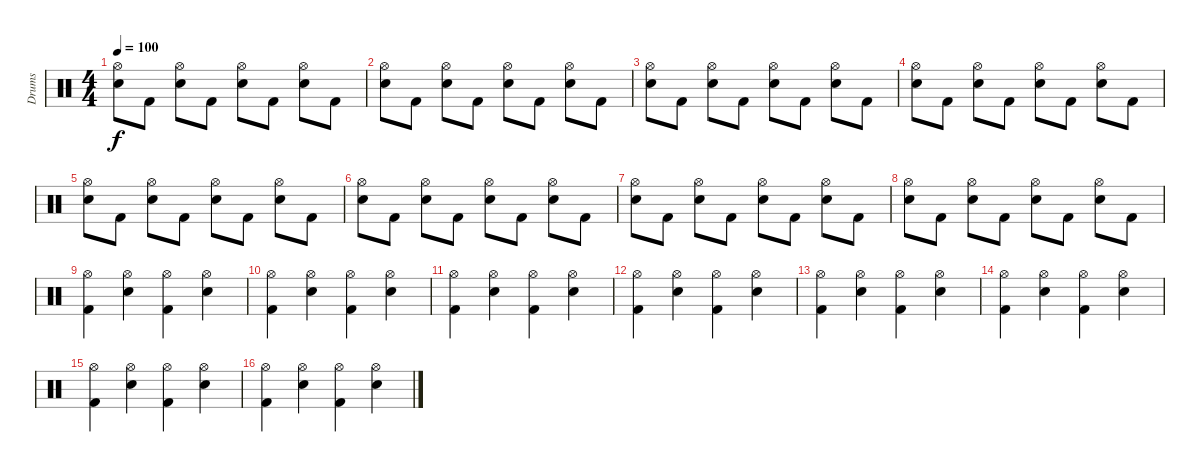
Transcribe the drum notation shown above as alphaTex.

\track ("Drums" "Drums") {instrument percussion}
\staff {score}
\articulation defaults
\ts (4 4)
\tempo 100
\clef neutral
\ks c
("Hi-Hat (open)" "Snare (hit) 2").8{dy f} "Kick (hit) 2".8 ("Hi-Hat (open)" "Snare (hit) 2").8 "Kick (hit) 2".8 ("Hi-Hat (open)" "Snare (hit) 2").8 "Kick (hit) 2".8 ("Hi-Hat (open)" "Snare (hit) 2").8 "Kick (hit) 2".8 |
("Hi-Hat (open)" "Snare (hit) 2").8 "Kick (hit) 2".8 ("Hi-Hat (open)" "Snare (hit) 2").8 "Kick (hit) 2".8 ("Hi-Hat (open)" "Snare (hit) 2").8 "Kick (hit) 2".8 ("Hi-Hat (open)" "Snare (hit) 2").8 "Kick (hit) 2".8 |
("Hi-Hat (open)" "Snare (hit) 2").8 "Kick (hit) 2".8 ("Hi-Hat (open)" "Snare (hit) 2").8 "Kick (hit) 2".8 ("Hi-Hat (open)" "Snare (hit) 2").8 "Kick (hit) 2".8 ("Hi-Hat (open)" "Snare (hit) 2").8 "Kick (hit) 2".8 |
("Hi-Hat (open)" "Snare (hit) 2").8 "Kick (hit) 2".8 ("Hi-Hat (open)" "Snare (hit) 2").8 "Kick (hit) 2".8 ("Hi-Hat (open)" "Snare (hit) 2").8 "Kick (hit) 2".8 ("Hi-Hat (open)" "Snare (hit) 2").8 "Kick (hit) 2".8 |
("Hi-Hat (open)" "Snare (hit) 2").8 "Kick (hit) 2".8 ("Hi-Hat (open)" "Snare (hit) 2").8 "Kick (hit) 2".8 ("Hi-Hat (open)" "Snare (hit) 2").8 "Kick (hit) 2".8 ("Hi-Hat (open)" "Snare (hit) 2").8 "Kick (hit) 2".8 |
("Hi-Hat (open)" "Snare (hit) 2").8 "Kick (hit) 2".8 ("Hi-Hat (open)" "Snare (hit) 2").8 "Kick (hit) 2".8 ("Hi-Hat (open)" "Snare (hit) 2").8 "Kick (hit) 2".8 ("Hi-Hat (open)" "Snare (hit) 2").8 "Kick (hit) 2".8 |
("Hi-Hat (open)" "Snare (hit) 2").8 "Kick (hit) 2".8 ("Hi-Hat (open)" "Snare (hit) 2").8 "Kick (hit) 2".8 ("Hi-Hat (open)" "Snare (hit) 2").8 "Kick (hit) 2".8 ("Hi-Hat (open)" "Snare (hit) 2").8 "Kick (hit) 2".8 |
("Hi-Hat (open)" "Snare (hit) 2").8 "Kick (hit) 2".8 ("Hi-Hat (open)" "Snare (hit) 2").8 "Kick (hit) 2".8 ("Hi-Hat (open)" "Snare (hit) 2").8 "Kick (hit) 2".8 ("Hi-Hat (open)" "Snare (hit) 2").8 "Kick (hit) 2".8 |
("Hi-Hat (open)" "Kick (hit) 2").4 ("Hi-Hat (open)" "Snare (hit) 2").4 ("Hi-Hat (open)" "Kick (hit) 2").4 ("Hi-Hat (open)" "Snare (hit) 2").4 |
("Hi-Hat (open)" "Kick (hit) 2").4 ("Hi-Hat (open)" "Snare (hit) 2").4 ("Hi-Hat (open)" "Kick (hit) 2").4 ("Hi-Hat (open)" "Snare (hit) 2").4 |
("Hi-Hat (open)" "Kick (hit) 2").4 ("Hi-Hat (open)" "Snare (hit) 2").4 ("Hi-Hat (open)" "Kick (hit) 2").4 ("Hi-Hat (open)" "Snare (hit) 2").4 |
("Hi-Hat (open)" "Kick (hit) 2").4 ("Hi-Hat (open)" "Snare (hit) 2").4 ("Hi-Hat (open)" "Kick (hit) 2").4 ("Hi-Hat (open)" "Snare (hit) 2").4 |
("Hi-Hat (open)" "Kick (hit) 2").4 ("Hi-Hat (open)" "Snare (hit) 2").4 ("Hi-Hat (open)" "Kick (hit) 2").4 ("Hi-Hat (open)" "Snare (hit) 2").4 |
("Hi-Hat (open)" "Kick (hit) 2").4 ("Hi-Hat (open)" "Snare (hit) 2").4 ("Hi-Hat (open)" "Kick (hit) 2").4 ("Hi-Hat (open)" "Snare (hit) 2").4 |
("Hi-Hat (open)" "Kick (hit) 2").4 ("Hi-Hat (open)" "Snare (hit) 2").4 ("Hi-Hat (open)" "Kick (hit) 2").4 ("Hi-Hat (open)" "Snare (hit) 2").4 |
("Hi-Hat (open)" "Kick (hit) 2").4 ("Hi-Hat (open)" "Snare (hit) 2").4 ("Hi-Hat (open)" "Kick (hit) 2").4 ("Hi-Hat (open)" "Snare (hit) 2").4
